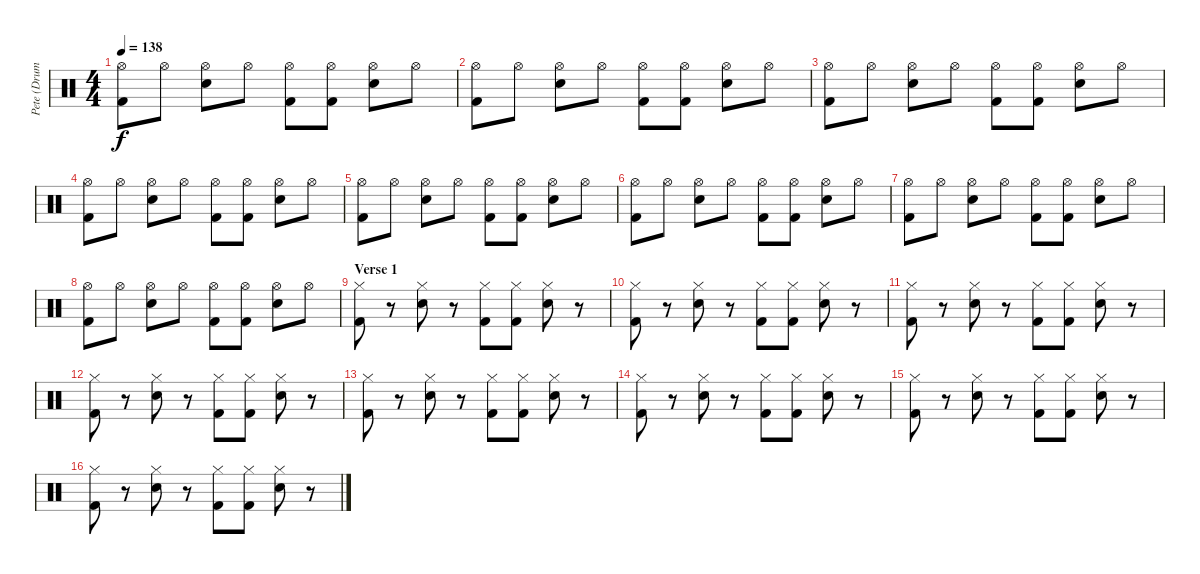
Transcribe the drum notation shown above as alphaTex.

\track ("Pete (Drums)" "Pete (Drum") {instrument percussion}
\staff {score}
\articulation defaults
\ts (4 4)
\tempo 138
\clef neutral
\ks c
("Hi-Hat (open)" "Kick (hit) 2").8{dy f} "Hi-Hat (open)".8 ("Hi-Hat (open)" "Snare (hit) 2").8 "Hi-Hat (open)".8 ("Hi-Hat (open)" "Kick (hit) 2").8 ("Hi-Hat (open)" "Kick (hit) 2").8 ("Hi-Hat (open)" "Snare (hit) 2").8 "Hi-Hat (open)".8 |
("Hi-Hat (open)" "Kick (hit) 2").8 "Hi-Hat (open)".8 ("Hi-Hat (open)" "Snare (hit) 2").8 "Hi-Hat (open)".8 ("Hi-Hat (open)" "Kick (hit) 2").8 ("Hi-Hat (open)" "Kick (hit) 2").8 ("Hi-Hat (open)" "Snare (hit) 2").8 "Hi-Hat (open)".8 |
("Hi-Hat (open)" "Kick (hit) 2").8 "Hi-Hat (open)".8 ("Hi-Hat (open)" "Snare (hit) 2").8 "Hi-Hat (open)".8 ("Hi-Hat (open)" "Kick (hit) 2").8 ("Hi-Hat (open)" "Kick (hit) 2").8 ("Hi-Hat (open)" "Snare (hit) 2").8 "Hi-Hat (open)".8 |
("Hi-Hat (open)" "Kick (hit) 2").8 "Hi-Hat (open)".8 ("Hi-Hat (open)" "Snare (hit) 2").8 "Hi-Hat (open)".8 ("Hi-Hat (open)" "Kick (hit) 2").8 ("Hi-Hat (open)" "Kick (hit) 2").8 ("Hi-Hat (open)" "Snare (hit) 2").8 "Hi-Hat (open)".8 |
("Hi-Hat (open)" "Kick (hit) 2").8 "Hi-Hat (open)".8 ("Hi-Hat (open)" "Snare (hit) 2").8 "Hi-Hat (open)".8 ("Hi-Hat (open)" "Kick (hit) 2").8 ("Hi-Hat (open)" "Kick (hit) 2").8 ("Hi-Hat (open)" "Snare (hit) 2").8 "Hi-Hat (open)".8 |
("Hi-Hat (open)" "Kick (hit) 2").8 "Hi-Hat (open)".8 ("Hi-Hat (open)" "Snare (hit) 2").8 "Hi-Hat (open)".8 ("Hi-Hat (open)" "Kick (hit) 2").8 ("Hi-Hat (open)" "Kick (hit) 2").8 ("Hi-Hat (open)" "Snare (hit) 2").8 "Hi-Hat (open)".8 |
("Hi-Hat (open)" "Kick (hit) 2").8 "Hi-Hat (open)".8 ("Hi-Hat (open)" "Snare (hit) 2").8 "Hi-Hat (open)".8 ("Hi-Hat (open)" "Kick (hit) 2").8 ("Hi-Hat (open)" "Kick (hit) 2").8 ("Hi-Hat (open)" "Snare (hit) 2").8 "Hi-Hat (open)".8 |
("Hi-Hat (open)" "Kick (hit) 2").8 "Hi-Hat (open)".8 ("Hi-Hat (open)" "Snare (hit) 2").8 "Hi-Hat (open)".8 ("Hi-Hat (open)" "Kick (hit) 2").8 ("Hi-Hat (open)" "Kick (hit) 2").8 ("Hi-Hat (open)" "Snare (hit) 2").8 "Hi-Hat (open)".8 |
\section ("" "Verse 1")
("Hi-Hat (closed)" "Kick (hit) 2").8 r.8 ("Hi-Hat (closed)" "Snare (hit) 2").8 r.8 ("Hi-Hat (closed)" "Kick (hit) 2").8 ("Hi-Hat (closed)" "Kick (hit) 2").8 ("Hi-Hat (closed)" "Snare (hit) 2").8 r.8 |
("Hi-Hat (closed)" "Kick (hit) 2").8 r.8 ("Hi-Hat (closed)" "Snare (hit) 2").8 r.8 ("Hi-Hat (closed)" "Kick (hit) 2").8 ("Hi-Hat (closed)" "Kick (hit) 2").8 ("Hi-Hat (closed)" "Snare (hit) 2").8 r.8 |
("Hi-Hat (closed)" "Kick (hit) 2").8 r.8 ("Hi-Hat (closed)" "Snare (hit) 2").8 r.8 ("Hi-Hat (closed)" "Kick (hit) 2").8 ("Hi-Hat (closed)" "Kick (hit) 2").8 ("Hi-Hat (closed)" "Snare (hit) 2").8 r.8 |
("Hi-Hat (closed)" "Kick (hit) 2").8 r.8 ("Hi-Hat (closed)" "Snare (hit) 2").8 r.8 ("Hi-Hat (closed)" "Kick (hit) 2").8 ("Hi-Hat (closed)" "Kick (hit) 2").8 ("Hi-Hat (closed)" "Snare (hit) 2").8 r.8 |
("Hi-Hat (closed)" "Kick (hit) 2").8 r.8 ("Hi-Hat (closed)" "Snare (hit) 2").8 r.8 ("Hi-Hat (closed)" "Kick (hit) 2").8 ("Hi-Hat (closed)" "Kick (hit) 2").8 ("Hi-Hat (closed)" "Snare (hit) 2").8 r.8 |
("Hi-Hat (closed)" "Kick (hit) 2").8 r.8 ("Hi-Hat (closed)" "Snare (hit) 2").8 r.8 ("Hi-Hat (closed)" "Kick (hit) 2").8 ("Hi-Hat (closed)" "Kick (hit) 2").8 ("Hi-Hat (closed)" "Snare (hit) 2").8 r.8 |
("Hi-Hat (closed)" "Kick (hit) 2").8 r.8 ("Hi-Hat (closed)" "Snare (hit) 2").8 r.8 ("Hi-Hat (closed)" "Kick (hit) 2").8 ("Hi-Hat (closed)" "Kick (hit) 2").8 ("Hi-Hat (closed)" "Snare (hit) 2").8 r.8 |
("Hi-Hat (closed)" "Kick (hit) 2").8 r.8 ("Hi-Hat (closed)" "Snare (hit) 2").8 r.8 ("Hi-Hat (closed)" "Kick (hit) 2").8 ("Hi-Hat (closed)" "Kick (hit) 2").8 ("Hi-Hat (closed)" "Snare (hit) 2").8 r.8
